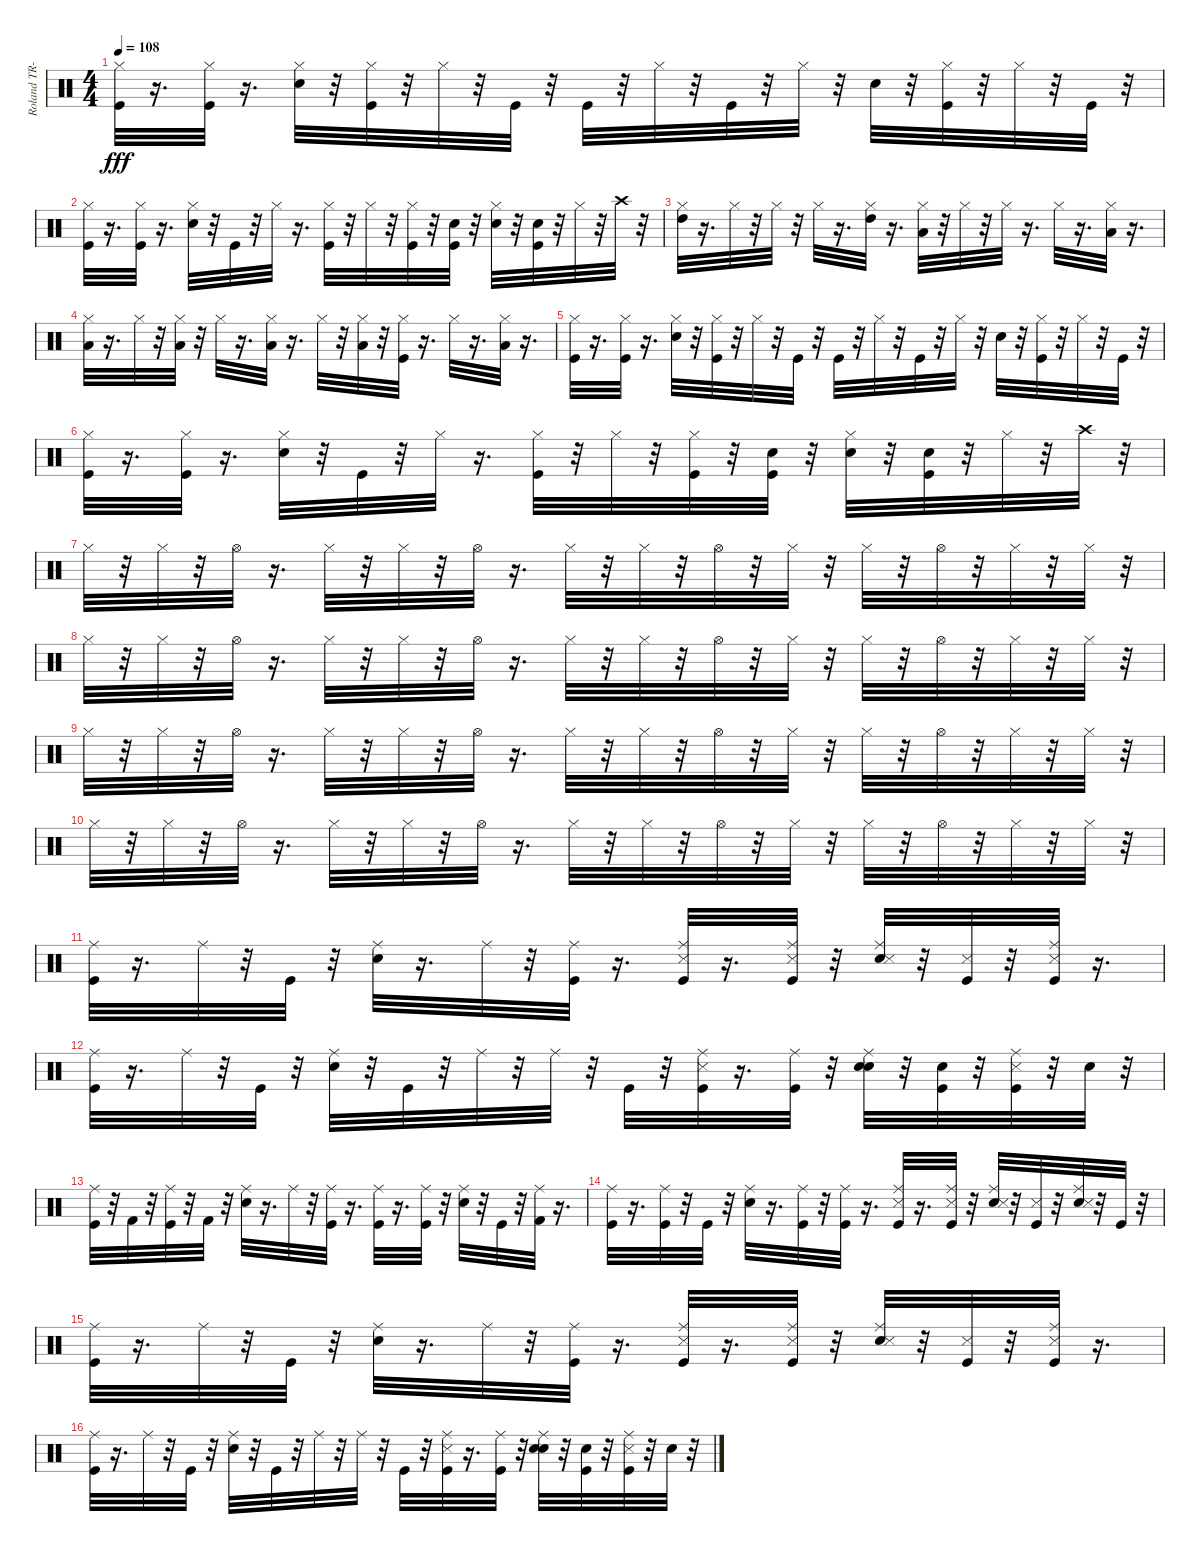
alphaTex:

\track ("Roland TR-707" "Roland TR-") {instrument percussion}
\staff {score}
\articulation defaults
\ts (4 4)
\tempo 108
\clef neutral
\ks c
("Kick (hit)" "Hi-Hat (closed)").32{dy fff} r.16{d} ("Kick (hit)" "Hi-Hat (closed)").32 r.16{d} ("Snare (hit) 2" "Hi-Hat (closed)").32 r.32 ("Kick (hit)" "Hi-Hat (closed)").32 r.32 "Hi-Hat (closed)".32 r.32 "Kick (hit)".32 r.32 "Kick (hit)".32 r.32 "Hi-Hat (closed)".32 r.32 "Kick (hit)".32 r.32 "Hi-Hat (closed)".32 r.32 "Snare (hit) 2".32 r.32 ("Kick (hit)" "Hi-Hat (closed)").32 r.32 "Hi-Hat (closed)".32 r.32 "Kick (hit)".32 r.32 |
("Kick (hit)" "Hi-Hat (closed)").32 r.16{d} ("Kick (hit)" "Hi-Hat (closed)").32 r.16{d} ("Snare (hit) 2" "Hi-Hat (closed)").32 r.32 "Kick (hit)".32 r.32 "Hi-Hat (closed)".32 r.16{d} ("Kick (hit)" "Hi-Hat (closed)").32 r.32 "Hi-Hat (closed)".32 r.32 ("Kick (hit)" "Hi-Hat (closed)").32 r.32 ("Kick (hit)" "Hand Clap (hit)").32 r.32 ("Snare (hit) 2" "Hi-Hat (closed)").32 r.32 ("Kick (hit)" "Hand Clap (hit)").32 r.32 "Hi-Hat (closed)".32 r.32 "Crash high (hit)".32 r.32 |
("High Tom (hit)" "Hi-Hat (closed)").32 r.16{d} "Hi-Hat (closed)".32 r.32 "Hi-Hat (closed)".32 r.32 "Hi-Hat (closed)".32 r.16{d} ("High Tom (hit)" "Hi-Hat (closed)").32 r.16{d} ("Low Tom (hit)" "Hi-Hat (closed)").32 r.32 "Hi-Hat (closed)".32 r.32 "Hi-Hat (closed)".32 r.16{d} "Hi-Hat (closed)".32 r.16{d} ("Low Tom (hit)" "Hi-Hat (closed)").32 r.16{d} |
("Low Floor Tom (hit)" "Hi-Hat (closed)").32 r.16{d} "Hi-Hat (closed)".32 r.32 ("Low Floor Tom (hit)" "Hi-Hat (closed)").32 r.32 "Hi-Hat (closed)".32 r.16{d} ("Low Floor Tom (hit)" "Hi-Hat (closed)").32 r.16{d} "Hi-Hat (closed)".32 r.32 ("Low Floor Tom (hit)" "Hi-Hat (closed)").32 r.32 ("Kick (hit)" "Hi-Hat (closed)").32 r.16{d} "Hi-Hat (closed)".32 r.16{d} ("Low Floor Tom (hit)" "Hi-Hat (closed)").32 r.16{d} |
("Kick (hit)" "Hi-Hat (closed)").32 r.16{d} ("Kick (hit)" "Hi-Hat (closed)").32 r.16{d} ("Snare (hit) 2" "Hi-Hat (closed)").32 r.32 ("Kick (hit)" "Hi-Hat (closed)").32 r.32 "Hi-Hat (closed)".32 r.32 "Kick (hit)".32 r.32 "Kick (hit)".32 r.32 "Hi-Hat (closed)".32 r.32 "Kick (hit)".32 r.32 "Hi-Hat (closed)".32 r.32 "Snare (hit) 2".32 r.32 ("Kick (hit)" "Hi-Hat (closed)").32 r.32 "Hi-Hat (closed)".32 r.32 "Kick (hit)".32 r.32 |
("Kick (hit)" "Hi-Hat (closed)").32 r.16{d} ("Kick (hit)" "Hi-Hat (closed)").32 r.16{d} ("Snare (hit) 2" "Hi-Hat (closed)").32 r.32 "Kick (hit)".32 r.32 "Hi-Hat (closed)".32 r.16{d} ("Kick (hit)" "Hi-Hat (closed)").32 r.32 "Hi-Hat (closed)".32 r.32 ("Kick (hit)" "Hi-Hat (closed)").32 r.32 ("Kick (hit)" "Hand Clap (hit)").32 r.32 ("Snare (hit) 2" "Hi-Hat (closed)").32 r.32 ("Kick (hit)" "Hand Clap (hit)").32 r.32 "Hi-Hat (closed)".32 r.32 "Crash high (hit)".32 r.32 |
"Hi-Hat (closed)".32 r.32 "Hi-Hat (closed)".32 r.32 "Hi-Hat (open)".32 r.16{d} "Hi-Hat (closed)".32 r.32 "Hi-Hat (closed)".32 r.32 "Hi-Hat (open)".32 r.16{d} "Hi-Hat (closed)".32 r.32 "Hi-Hat (closed)".32 r.32 "Hi-Hat (open)".32 r.32 "Hi-Hat (closed)".32 r.32 "Hi-Hat (closed)".32 r.32 "Hi-Hat (open)".32 r.32 "Hi-Hat (closed)".32 r.32 "Hi-Hat (closed)".32 r.32 |
"Hi-Hat (closed)".32 r.32 "Hi-Hat (closed)".32 r.32 "Hi-Hat (open)".32 r.16{d} "Hi-Hat (closed)".32 r.32 "Hi-Hat (closed)".32 r.32 "Hi-Hat (open)".32 r.16{d} "Hi-Hat (closed)".32 r.32 "Hi-Hat (closed)".32 r.32 "Hi-Hat (open)".32 r.32 "Hi-Hat (closed)".32 r.32 "Hi-Hat (closed)".32 r.32 "Hi-Hat (open)".32 r.32 "Hi-Hat (closed)".32 r.32 "Hi-Hat (closed)".32 r.32 |
"Hi-Hat (closed)".32 r.32 "Hi-Hat (closed)".32 r.32 "Hi-Hat (open)".32 r.16{d} "Hi-Hat (closed)".32 r.32 "Hi-Hat (closed)".32 r.32 "Hi-Hat (open)".32 r.16{d} "Hi-Hat (closed)".32 r.32 "Hi-Hat (closed)".32 r.32 "Hi-Hat (open)".32 r.32 "Hi-Hat (closed)".32 r.32 "Hi-Hat (closed)".32 r.32 "Hi-Hat (open)".32 r.32 "Hi-Hat (closed)".32 r.32 "Hi-Hat (closed)".32 r.32 |
"Hi-Hat (closed)".32 r.32 "Hi-Hat (closed)".32 r.32 "Hi-Hat (open)".32 r.16{d} "Hi-Hat (closed)".32 r.32 "Hi-Hat (closed)".32 r.32 "Hi-Hat (open)".32 r.16{d} "Hi-Hat (closed)".32 r.32 "Hi-Hat (closed)".32 r.32 "Hi-Hat (open)".32 r.32 "Hi-Hat (closed)".32 r.32 "Hi-Hat (closed)".32 r.32 "Hi-Hat (open)".32 r.32 "Hi-Hat (closed)".32 r.32 "Hi-Hat (closed)".32 r.32 |
("Kick (hit)" "Ride (middle)").32 r.16{d} "Ride (middle)".32 r.32 "Kick (hit)".32 r.32 ("Snare (hit) 2" "Ride (middle)").32 r.16{d} "Ride (middle)".32 r.32 ("Kick (hit)" "Ride (middle)").32 r.16{d} ("Kick (hit)" "Snare (side stick) 3" "Ride (middle)").32 r.16{d} ("Kick (hit)" "Snare (side stick) 3" "Ride (middle)").32 r.32 ("Snare (hit) 2" "Snare (side stick) 3" "Ride (middle)").32 r.32 ("Kick (hit)" "Snare (side stick) 3").32 r.32 ("Kick (hit)" "Snare (side stick) 3" "Ride (middle)").32 r.16{d} |
("Kick (hit)" "Ride (middle)").32 r.16{d} "Ride (middle)".32 r.32 "Kick (hit)".32 r.32 ("Snare (hit) 2" "Ride (middle)").32 r.32 "Kick (hit)".32 r.32 "Ride (middle)".32 r.32 "Ride (middle)".32 r.32 "Kick (hit)".32 r.32 ("Kick (hit)" "Snare (side stick) 3" "Ride (middle)").32 r.16{d} ("Kick (hit)" "Ride (middle)").32 r.32 ("Snare (hit) 2" "Hand Clap (hit)" "Ride (middle)").32 r.32 ("Kick (hit)" "Hand Clap (hit)").32 r.32 ("Kick (hit)" "Snare (side stick) 3" "Ride (middle)").32 r.32 "Hand Clap (hit)".32 r.32 |
("Kick (hit)" "Ride (middle)").32 r.32 "Kick (hit) 2".32 r.32 ("Kick (hit)" "Ride (middle)").32 r.32 "Kick (hit) 2".32 r.32 ("Snare (hit) 2" "Ride (middle)").32 r.16{d} "Ride (middle)".32 r.32 ("Kick (hit)" "Ride (middle)").32 r.16{d} ("Kick (hit)" "Ride (middle)").32 r.16{d} ("Kick (hit)" "Ride (middle)").32 r.32 ("Snare (hit) 2" "Ride (middle)").32 r.32 "Kick (hit)".32 r.32 ("Kick (hit) 2" "Ride (middle)").32 r.16{d} |
("Kick (hit)" "Ride (middle)").32 r.16{d} ("Kick (hit)" "Ride (middle)").32 r.32 "Kick (hit)".32 r.32 ("Snare (hit) 2" "Ride (middle)").32 r.16{d} ("Kick (hit)" "Ride (middle)").32 r.32 ("Kick (hit)" "Ride (middle)").32 r.16{d} ("Kick (hit)" "Snare (side stick) 3" "Ride (middle)").32 r.16{d} ("Kick (hit)" "Snare (side stick) 3" "Ride (middle)").32 r.32 ("Snare (hit) 2" "Snare (side stick) 3" "Ride (middle)").32 r.32 ("Kick (hit)" "Snare (side stick) 3").32 r.32 ("Snare (hit) 2" "Snare (side stick) 3" "Ride (middle)").32 r.32 "Kick (hit)".32 r.32 |
("Kick (hit)" "Ride (middle)").32 r.16{d} "Ride (middle)".32 r.32 "Kick (hit)".32 r.32 ("Snare (hit) 2" "Ride (middle)").32 r.16{d} "Ride (middle)".32 r.32 ("Kick (hit)" "Ride (middle)").32 r.16{d} ("Kick (hit)" "Snare (side stick) 3" "Ride (middle)").32 r.16{d} ("Kick (hit)" "Snare (side stick) 3" "Ride (middle)").32 r.32 ("Snare (hit) 2" "Snare (side stick) 3" "Ride (middle)").32 r.32 ("Kick (hit)" "Snare (side stick) 3").32 r.32 ("Kick (hit)" "Snare (side stick) 3" "Ride (middle)").32 r.16{d} |
("Kick (hit)" "Ride (middle)").32 r.16{d} "Ride (middle)".32 r.32 "Kick (hit)".32 r.32 ("Snare (hit) 2" "Ride (middle)").32 r.32 "Kick (hit)".32 r.32 "Ride (middle)".32 r.32 "Ride (middle)".32 r.32 "Kick (hit)".32 r.32 ("Kick (hit)" "Snare (side stick) 3" "Ride (middle)").32 r.16{d} ("Kick (hit)" "Ride (middle)").32 r.32 ("Snare (hit) 2" "Hand Clap (hit)" "Ride (middle)").32 r.32 ("Kick (hit)" "Hand Clap (hit)").32 r.32 ("Kick (hit)" "Snare (side stick) 3" "Ride (middle)").32 r.32 "Hand Clap (hit)".32 r.32
